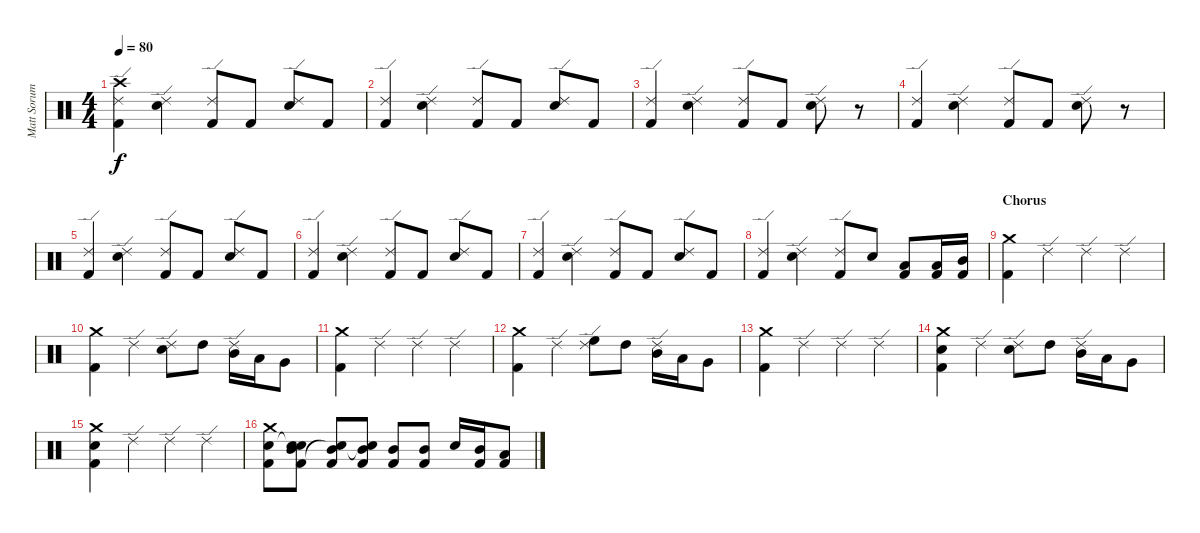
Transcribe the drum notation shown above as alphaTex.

\track ("Matt Sorum" "Matt Sorum") {instrument percussion}
\staff {score}
\articulation defaults
\ts (4 4)
\tempo 80
\clef neutral
\ks c
("Ride (edge) 2" "Kick (hit) 2" "Crash high (hit)").4{dy f} ("Electric Snare (hit)" "Ride (edge) 2").4 ("Ride (edge) 2" "Kick (hit) 2").8 "Kick (hit) 2".8 ("Electric Snare (hit)" "Ride (edge) 2").8 "Kick (hit) 2".8 |
("Ride (edge) 2" "Kick (hit) 2").4 ("Electric Snare (hit)" "Ride (edge) 2").4 ("Ride (edge) 2" "Kick (hit) 2").8 "Kick (hit) 2".8 ("Electric Snare (hit)" "Ride (edge) 2").8 "Kick (hit) 2".8 |
("Ride (edge) 2" "Kick (hit) 2").4 ("Electric Snare (hit)" "Ride (edge) 2").4 ("Ride (edge) 2" "Kick (hit) 2").8 "Kick (hit) 2".8 ("Electric Snare (hit)" "Ride (edge) 2").8 r.8 |
("Ride (edge) 2" "Kick (hit) 2").4 ("Electric Snare (hit)" "Ride (edge) 2").4 ("Ride (edge) 2" "Kick (hit) 2").8 "Kick (hit) 2".8 ("Electric Snare (hit)" "Ride (edge) 2").8 r.8 |
("Ride (edge) 2" "Kick (hit) 2").4 ("Electric Snare (hit)" "Ride (edge) 2").4 ("Ride (edge) 2" "Kick (hit) 2").8 "Kick (hit) 2".8 ("Electric Snare (hit)" "Ride (edge) 2").8 "Kick (hit) 2".8 |
("Ride (edge) 2" "Kick (hit) 2").4 ("Electric Snare (hit)" "Ride (edge) 2").4 ("Ride (edge) 2" "Kick (hit) 2").8 "Kick (hit) 2".8 ("Electric Snare (hit)" "Ride (edge) 2").8 "Kick (hit) 2".8 |
("Ride (edge) 2" "Kick (hit) 2").4 ("Electric Snare (hit)" "Ride (edge) 2").4 ("Ride (edge) 2" "Kick (hit) 2").8 "Kick (hit) 2".8 ("Electric Snare (hit)" "Ride (edge) 2").8 "Kick (hit) 2".8 |
("Ride (edge) 2" "Kick (hit) 2").4 ("Electric Snare (hit)" "Ride (edge) 2").4 ("Ride (edge) 2" "Kick (hit) 2").8 "Electric Snare (hit)".8 ("Low Tom (hit)" "Kick (hit) 2").8 ("Low Tom (hit)" "Kick (hit) 2").16 ("Mid Tom (hit)" "Kick (hit) 2").16 |
\section ("" "Chorus")
("Crash medium (hit)" "Kick (hit) 2").4 "Ride (edge) 2".4 "Ride (edge) 2".4 "Ride (edge) 2".4 |
("Crash medium (hit)" "Kick (hit) 2").4 "Ride (edge) 2".4 ("Ride (edge) 2" "Electric Snare (hit)").8 "High Tom (hit)".8 ("Ride (edge) 2" "Mid Tom (hit)").16 "Low Tom (hit)".16 "Very Low Tom (hit)".8 |
("Crash medium (hit)" "Kick (hit) 2").4 "Ride (edge) 2".4 "Ride (edge) 2".4 "Ride (edge) 2".4 |
("Crash medium (hit)" "Kick (hit) 2").4 "Ride (edge) 2".4 ("Ride (edge) 2" "High Floor Tom (hit)").8 "High Tom (hit)".8 ("Ride (edge) 2" "Mid Tom (hit)").16 "Low Tom (hit)".16 "Very Low Tom (hit)".8 |
("Crash medium (hit)" "Kick (hit) 2").4 "Ride (edge) 2".4 "Ride (edge) 2".4 "Ride (edge) 2".4 |
("Electric Snare (hit)" "Crash medium (hit)" "Kick (hit) 2").4 "Ride (edge) 2".4 ("Ride (edge) 2" "Electric Snare (hit)").8 "High Tom (hit)".8 ("Ride (edge) 2" "Mid Tom (hit)").16 "Low Tom (hit)".16 "Very Low Tom (hit)".8 |
("Electric Snare (hit)" "Crash medium (hit)" "Kick (hit) 2").4 "Ride (edge) 2".4 "Ride (edge) 2".4 "Ride (edge) 2".4 |
("Electric Snare (hit)" "Kick (hit) 2" "Crash medium (hit)").8 ("Snare (hit)"{t} "Mid Tom (hit)" "Kick (hit) 2" "Snare (hit)").8 ("Mid Tom (hit)" "Kick (hit) 2" "Snare (hit)"{t}).8 ("Mid Tom (hit)" "Kick (hit) 2" "Snare (hit)"{t}).8 ("Mid Tom (hit)" "Kick (hit) 2").8 ("Mid Tom (hit)" "Kick (hit) 2").8 "Electric Snare (hit)".16 ("Mid Tom (hit)" "Kick (hit) 2").16 ("Low Tom (hit)" "Kick (hit) 2").8
